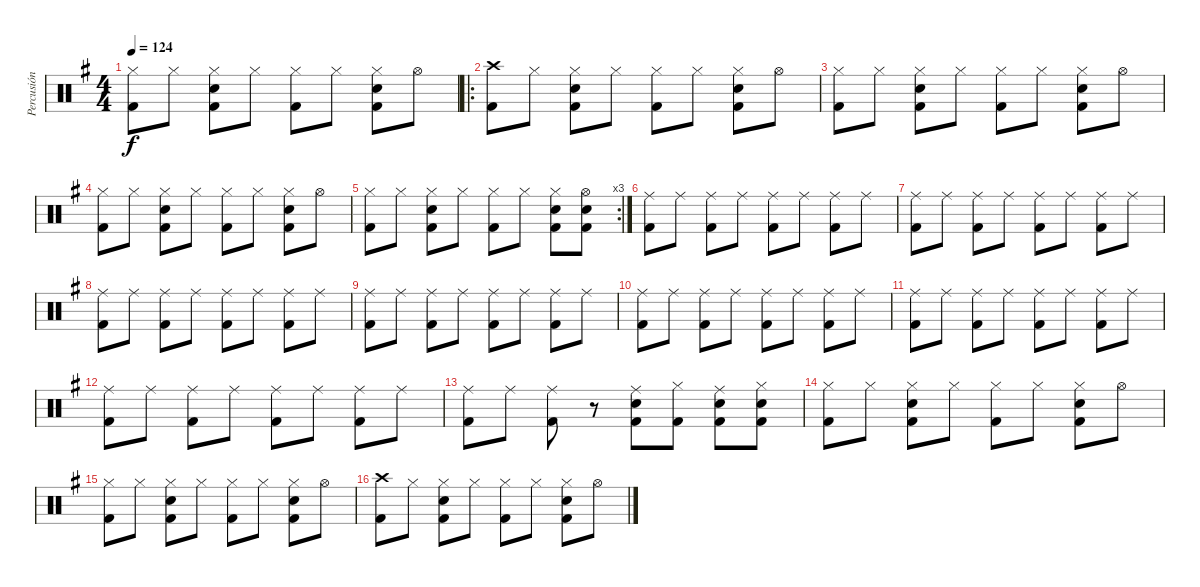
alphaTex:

\track ("Percusión" "Percusión") {instrument percussion}
\staff {score}
\articulation defaults
\ts (4 4)
\tempo 124
\clef neutral
\ks g
("Hi-Hat (closed)" "Kick (hit) 2").8{dy f} "Hi-Hat (closed)".8 ("Hi-Hat (closed)" "Electric Snare (hit)" "Kick (hit) 2").8 "Hi-Hat (closed)".8 ("Hi-Hat (closed)" "Kick (hit) 2").8 "Hi-Hat (closed)".8 ("Hi-Hat (closed)" "Electric Snare (hit)" "Kick (hit) 2").8 "Hi-Hat (open)".8 |
\ro
("Crash high (hit)" "Kick (hit) 2").8 "Hi-Hat (closed)".8 ("Hi-Hat (closed)" "Electric Snare (hit)" "Kick (hit) 2").8 "Hi-Hat (closed)".8 ("Hi-Hat (closed)" "Kick (hit) 2").8 "Hi-Hat (closed)".8 ("Hi-Hat (closed)" "Electric Snare (hit)" "Kick (hit) 2").8 "Hi-Hat (open)".8 |
("Hi-Hat (closed)" "Kick (hit) 2").8 "Hi-Hat (closed)".8 ("Hi-Hat (closed)" "Electric Snare (hit)" "Kick (hit) 2").8 "Hi-Hat (closed)".8 ("Hi-Hat (closed)" "Kick (hit) 2").8 "Hi-Hat (closed)".8 ("Hi-Hat (closed)" "Electric Snare (hit)" "Kick (hit) 2").8 "Hi-Hat (open)".8 |
("Hi-Hat (closed)" "Kick (hit) 2").8 "Hi-Hat (closed)".8 ("Hi-Hat (closed)" "Electric Snare (hit)" "Kick (hit) 2").8 "Hi-Hat (closed)".8 ("Hi-Hat (closed)" "Kick (hit) 2").8 "Hi-Hat (closed)".8 ("Hi-Hat (closed)" "Electric Snare (hit)" "Kick (hit) 2").8 "Hi-Hat (open)".8 |
\rc 3
("Hi-Hat (closed)" "Kick (hit) 2").8 "Hi-Hat (closed)".8 ("Hi-Hat (closed)" "Electric Snare (hit)" "Kick (hit) 2").8 "Hi-Hat (closed)".8 ("Hi-Hat (closed)" "Kick (hit) 2").8 "Hi-Hat (closed)".8 ("Hi-Hat (closed)" "Electric Snare (hit)" "Kick (hit) 2").8 ("Hi-Hat (open)" "Electric Snare (hit)" "Kick (hit) 2").8 |
("Ride (middle)" "Kick (hit) 2").8 "Ride (middle)".8 ("Ride (middle)" "Kick (hit) 2").8 "Ride (middle)".8 ("Ride (middle)" "Kick (hit) 2").8 "Ride (middle)".8 ("Ride (middle)" "Kick (hit) 2").8 "Ride (middle)".8 |
("Ride (middle)" "Kick (hit) 2").8 "Ride (middle)".8 ("Ride (middle)" "Kick (hit) 2").8 "Ride (middle)".8 ("Ride (middle)" "Kick (hit) 2").8 "Ride (middle)".8 ("Ride (middle)" "Kick (hit) 2").8 "Ride (middle)".8 |
("Ride (middle)" "Kick (hit) 2").8 "Ride (middle)".8 ("Ride (middle)" "Kick (hit) 2").8 "Ride (middle)".8 ("Ride (middle)" "Kick (hit) 2").8 "Ride (middle)".8 ("Ride (middle)" "Kick (hit) 2").8 "Ride (middle)".8 |
("Ride (middle)" "Kick (hit) 2").8 "Ride (middle)".8 ("Ride (middle)" "Kick (hit) 2").8 "Ride (middle)".8 ("Ride (middle)" "Kick (hit) 2").8 "Ride (middle)".8 ("Ride (middle)" "Kick (hit) 2").8 "Ride (middle)".8 |
("Ride (middle)" "Kick (hit) 2").8 "Ride (middle)".8 ("Ride (middle)" "Kick (hit) 2").8 "Ride (middle)".8 ("Ride (middle)" "Kick (hit) 2").8 "Ride (middle)".8 ("Ride (middle)" "Kick (hit) 2").8 "Ride (middle)".8 |
("Ride (middle)" "Kick (hit) 2").8 "Ride (middle)".8 ("Ride (middle)" "Kick (hit) 2").8 "Ride (middle)".8 ("Ride (middle)" "Kick (hit) 2").8 "Ride (middle)".8 ("Ride (middle)" "Kick (hit) 2").8 "Ride (middle)".8 |
("Ride (middle)" "Kick (hit) 2").8 "Ride (middle)".8 ("Ride (middle)" "Kick (hit) 2").8 "Ride (middle)".8 ("Ride (middle)" "Kick (hit) 2").8 "Ride (middle)".8 ("Ride (middle)" "Kick (hit) 2").8 "Ride (middle)".8 |
("Ride (middle)" "Kick (hit) 2").8 "Ride (middle)".8 ("Ride (middle)" "Kick (hit) 2").8 r.8 ("Ride (middle)" "Electric Snare (hit)" "Kick (hit) 2").8 ("Hi-Hat (closed)" "Kick (hit) 2").8 ("Ride (middle)" "Electric Snare (hit)" "Kick (hit) 2").8 ("Hi-Hat (closed)" "Electric Snare (hit)" "Kick (hit) 2").8 |
("Hi-Hat (closed)" "Kick (hit) 2").8 "Hi-Hat (closed)".8 ("Hi-Hat (closed)" "Electric Snare (hit)" "Kick (hit) 2").8 "Hi-Hat (closed)".8 ("Hi-Hat (closed)" "Kick (hit) 2").8 "Hi-Hat (closed)".8 ("Hi-Hat (closed)" "Electric Snare (hit)" "Kick (hit) 2").8 "Hi-Hat (open)".8 |
("Hi-Hat (closed)" "Kick (hit) 2").8 "Hi-Hat (closed)".8 ("Hi-Hat (closed)" "Electric Snare (hit)" "Kick (hit) 2").8 "Hi-Hat (closed)".8 ("Hi-Hat (closed)" "Kick (hit) 2").8 "Hi-Hat (closed)".8 ("Hi-Hat (closed)" "Electric Snare (hit)" "Kick (hit) 2").8 "Hi-Hat (open)".8 |
("Crash high (hit)" "Kick (hit) 2").8 "Hi-Hat (closed)".8 ("Hi-Hat (closed)" "Electric Snare (hit)" "Kick (hit) 2").8 "Hi-Hat (closed)".8 ("Hi-Hat (closed)" "Kick (hit) 2").8 "Hi-Hat (closed)".8 ("Hi-Hat (closed)" "Electric Snare (hit)" "Kick (hit) 2").8 "Hi-Hat (open)".8
